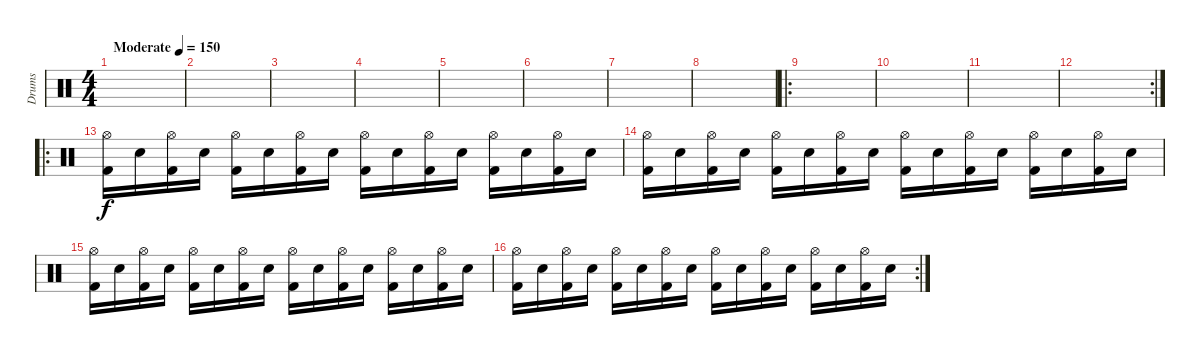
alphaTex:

\track ("Drums" "Drums") {instrument percussion}
\staff {score}
\articulation defaults
\ts (4 4)
\tempo (150 "Moderate")
\clef neutral
\ks c
|
|
|
|
|
|
|
|
\ro
|
|
|
\rc 2
|
\ro
("Hi-Hat (open)" "Kick (hit) 2").16 "Electric Snare (hit)".16 ("Hi-Hat (open)" "Kick (hit) 2").16 "Electric Snare (hit)".16 ("Hi-Hat (open)" "Kick (hit) 2").16 "Electric Snare (hit)".16 ("Hi-Hat (open)" "Kick (hit) 2").16 "Electric Snare (hit)".16 ("Hi-Hat (open)" "Kick (hit) 2").16 "Electric Snare (hit)".16 ("Hi-Hat (open)" "Kick (hit) 2").16 "Electric Snare (hit)".16 ("Hi-Hat (open)" "Kick (hit) 2").16 "Electric Snare (hit)".16 ("Hi-Hat (open)" "Kick (hit) 2").16 "Electric Snare (hit)".16 |
("Hi-Hat (open)" "Kick (hit) 2").16 "Electric Snare (hit)".16 ("Hi-Hat (open)" "Kick (hit) 2").16 "Electric Snare (hit)".16 ("Hi-Hat (open)" "Kick (hit) 2").16 "Electric Snare (hit)".16 ("Hi-Hat (open)" "Kick (hit) 2").16 "Electric Snare (hit)".16 ("Hi-Hat (open)" "Kick (hit) 2").16 "Electric Snare (hit)".16 ("Hi-Hat (open)" "Kick (hit) 2").16 "Electric Snare (hit)".16 ("Hi-Hat (open)" "Kick (hit) 2").16 "Electric Snare (hit)".16 ("Hi-Hat (open)" "Kick (hit) 2").16 "Electric Snare (hit)".16 |
("Hi-Hat (open)" "Kick (hit) 2").16 "Electric Snare (hit)".16 ("Hi-Hat (open)" "Kick (hit) 2").16 "Electric Snare (hit)".16 ("Hi-Hat (open)" "Kick (hit) 2").16 "Electric Snare (hit)".16 ("Hi-Hat (open)" "Kick (hit) 2").16 "Electric Snare (hit)".16 ("Hi-Hat (open)" "Kick (hit) 2").16 "Electric Snare (hit)".16 ("Hi-Hat (open)" "Kick (hit) 2").16 "Electric Snare (hit)".16 ("Hi-Hat (open)" "Kick (hit) 2").16 "Electric Snare (hit)".16 ("Hi-Hat (open)" "Kick (hit) 2").16 "Electric Snare (hit)".16 |
\rc 2
("Hi-Hat (open)" "Kick (hit) 2").16 "Electric Snare (hit)".16 ("Hi-Hat (open)" "Kick (hit) 2").16 "Electric Snare (hit)".16 ("Hi-Hat (open)" "Kick (hit) 2").16 "Electric Snare (hit)".16 ("Hi-Hat (open)" "Kick (hit) 2").16 "Electric Snare (hit)".16 ("Hi-Hat (open)" "Kick (hit) 2").16 "Electric Snare (hit)".16 ("Hi-Hat (open)" "Kick (hit) 2").16 "Electric Snare (hit)".16 ("Hi-Hat (open)" "Kick (hit) 2").16 "Electric Snare (hit)".16 ("Hi-Hat (open)" "Kick (hit) 2").16 "Electric Snare (hit)".16
